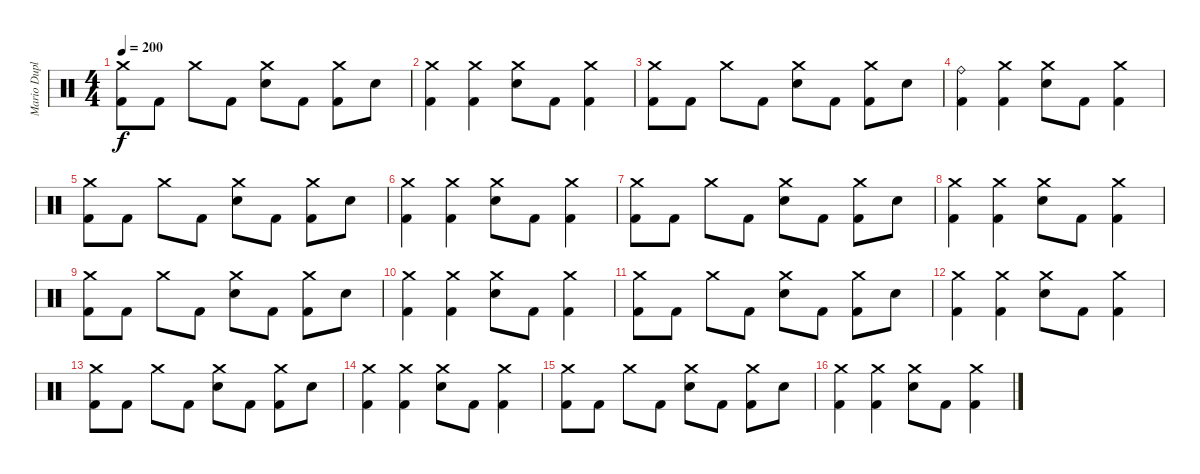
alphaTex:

\track ("Mario Duplantier" "Mario Dupl") {instrument percussion}
\staff {score}
\articulation defaults
\ts (4 4)
\tempo 200
\clef neutral
\ks c
("Crash medium (hit)" "Kick (hit) 2").8{dy f} "Kick (hit) 2".8 "Crash medium (hit)".8 "Kick (hit) 2".8 ("Crash medium (hit)" "Electric Snare (hit)").8 "Kick (hit) 2".8 ("Crash medium (hit)" "Kick (hit) 2").8 "Electric Snare (hit)".8 |
("Crash medium (hit)" "Kick (hit) 2").4 ("Crash medium (hit)" "Kick (hit) 2").4 ("Crash medium (hit)" "Electric Snare (hit)").8 "Kick (hit) 2".8 ("Crash medium (hit)" "Kick (hit) 2").4 |
("Crash medium (hit)" "Kick (hit) 2").8 "Kick (hit) 2".8 "Crash medium (hit)".8 "Kick (hit) 2".8 ("Crash medium (hit)" "Electric Snare (hit)").8 "Kick (hit) 2".8 ("Crash medium (hit)" "Kick (hit) 2").8 "Electric Snare (hit)".8 |
("Ride (bell)" "Kick (hit) 2").4 ("Crash medium (hit)" "Kick (hit) 2").4 ("Crash medium (hit)" "Electric Snare (hit)").8 "Kick (hit) 2".8 ("Crash medium (hit)" "Kick (hit) 2").4 |
("Crash medium (hit)" "Kick (hit) 2").8 "Kick (hit) 2".8 "Crash medium (hit)".8 "Kick (hit) 2".8 ("Crash medium (hit)" "Electric Snare (hit)").8 "Kick (hit) 2".8 ("Crash medium (hit)" "Kick (hit) 2").8 "Electric Snare (hit)".8 |
("Crash medium (hit)" "Kick (hit) 2").4 ("Crash medium (hit)" "Kick (hit) 2").4 ("Crash medium (hit)" "Electric Snare (hit)").8 "Kick (hit) 2".8 ("Crash medium (hit)" "Kick (hit) 2").4 |
("Crash medium (hit)" "Kick (hit) 2").8 "Kick (hit) 2".8 "Crash medium (hit)".8 "Kick (hit) 2".8 ("Crash medium (hit)" "Electric Snare (hit)").8 "Kick (hit) 2".8 ("Crash medium (hit)" "Kick (hit) 2").8 "Electric Snare (hit)".8 |
("Crash medium (hit)" "Kick (hit) 2").4 ("Crash medium (hit)" "Kick (hit) 2").4 ("Crash medium (hit)" "Electric Snare (hit)").8 "Kick (hit) 2".8 ("Crash medium (hit)" "Kick (hit) 2").4 |
("Crash medium (hit)" "Kick (hit) 2").8 "Kick (hit) 2".8 "Crash medium (hit)".8 "Kick (hit) 2".8 ("Crash medium (hit)" "Electric Snare (hit)").8 "Kick (hit) 2".8 ("Crash medium (hit)" "Kick (hit) 2").8 "Electric Snare (hit)".8 |
("Crash medium (hit)" "Kick (hit) 2").4 ("Crash medium (hit)" "Kick (hit) 2").4 ("Crash medium (hit)" "Electric Snare (hit)").8 "Kick (hit) 2".8 ("Crash medium (hit)" "Kick (hit) 2").4 |
("Crash medium (hit)" "Kick (hit) 2").8 "Kick (hit) 2".8 "Crash medium (hit)".8 "Kick (hit) 2".8 ("Crash medium (hit)" "Electric Snare (hit)").8 "Kick (hit) 2".8 ("Crash medium (hit)" "Kick (hit) 2").8 "Electric Snare (hit)".8 |
("Crash medium (hit)" "Kick (hit) 2").4 ("Crash medium (hit)" "Kick (hit) 2").4 ("Crash medium (hit)" "Electric Snare (hit)").8 "Kick (hit) 2".8 ("Crash medium (hit)" "Kick (hit) 2").4 |
("Crash medium (hit)" "Kick (hit) 2").8 "Kick (hit) 2".8 "Crash medium (hit)".8 "Kick (hit) 2".8 ("Crash medium (hit)" "Electric Snare (hit)").8 "Kick (hit) 2".8 ("Crash medium (hit)" "Kick (hit) 2").8 "Electric Snare (hit)".8 |
("Crash medium (hit)" "Kick (hit) 2").4 ("Crash medium (hit)" "Kick (hit) 2").4 ("Crash medium (hit)" "Electric Snare (hit)").8 "Kick (hit) 2".8 ("Crash medium (hit)" "Kick (hit) 2").4 |
("Crash medium (hit)" "Kick (hit) 2").8 "Kick (hit) 2".8 "Crash medium (hit)".8 "Kick (hit) 2".8 ("Crash medium (hit)" "Electric Snare (hit)").8 "Kick (hit) 2".8 ("Crash medium (hit)" "Kick (hit) 2").8 "Electric Snare (hit)".8 |
("Crash medium (hit)" "Kick (hit) 2").4 ("Crash medium (hit)" "Kick (hit) 2").4 ("Crash medium (hit)" "Electric Snare (hit)").8 "Kick (hit) 2".8 ("Crash medium (hit)" "Kick (hit) 2").4
